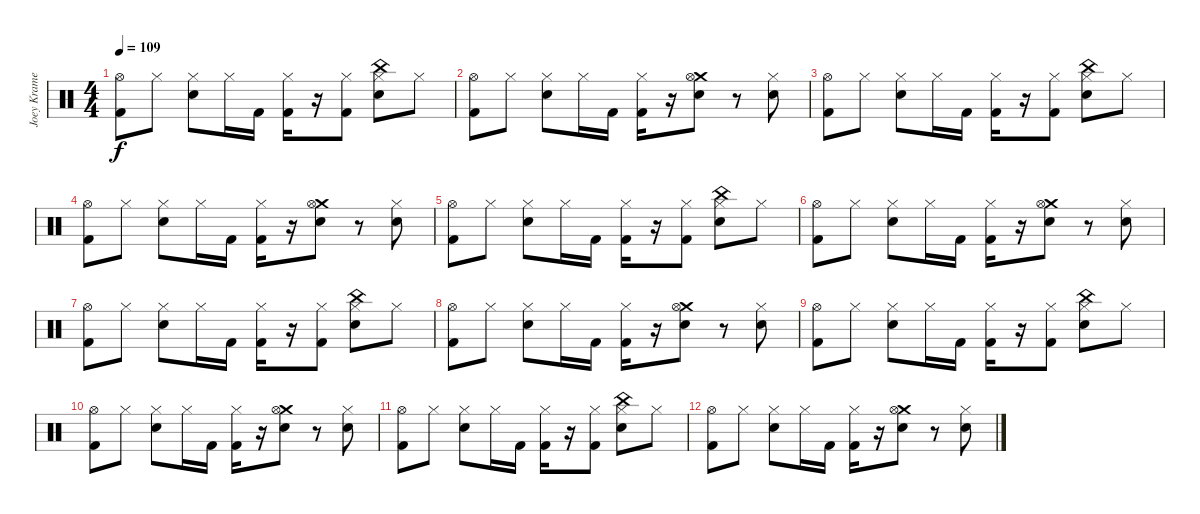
\track ("Joey Kramer" "Joey Krame") {instrument percussion}
\staff {score}
\articulation defaults
\ts (4 4)
\tempo 109
\clef neutral
\ks c
("Hi-Hat (open)" "Kick (hit) 2").8{dy f} "Hi-Hat (closed)".8 ("Hi-Hat (closed)" "Snare (hit) 2").8 "Hi-Hat (closed)".16 "Kick (hit) 2".16 ("Hi-Hat (closed)" "Kick (hit) 2").16 r.16 ("Hi-Hat (closed)" "Kick (hit) 2").8 ("China (hit)" "Hi-Hat (closed)" "Snare (hit) 2").8 "Hi-Hat (closed)".8 |
("Hi-Hat (open)" "Kick (hit) 2").8 "Hi-Hat (closed)".8 ("Hi-Hat (closed)" "Snare (hit) 2").8 "Hi-Hat (closed)".16 "Kick (hit) 2".16 ("Hi-Hat (closed)" "Kick (hit) 2").16 r.16 ("Crash medium (hit)" "Hi-Hat (open)" "Snare (hit) 2").8 r.8 ("Snare (hit) 2" "Hi-Hat (closed)").8 |
("Hi-Hat (open)" "Kick (hit) 2").8 "Hi-Hat (closed)".8 ("Hi-Hat (closed)" "Snare (hit) 2").8 "Hi-Hat (closed)".16 "Kick (hit) 2".16 ("Hi-Hat (closed)" "Kick (hit) 2").16 r.16 ("Hi-Hat (closed)" "Kick (hit) 2").8 ("China (hit)" "Hi-Hat (closed)" "Snare (hit) 2").8 "Hi-Hat (closed)".8 |
("Hi-Hat (open)" "Kick (hit) 2").8 "Hi-Hat (closed)".8 ("Hi-Hat (closed)" "Snare (hit) 2").8 "Hi-Hat (closed)".16 "Kick (hit) 2".16 ("Hi-Hat (closed)" "Kick (hit) 2").16 r.16 ("Crash medium (hit)" "Hi-Hat (open)" "Snare (hit) 2").8 r.8 ("Snare (hit) 2" "Hi-Hat (closed)").8 |
("Hi-Hat (open)" "Kick (hit) 2").8 "Hi-Hat (closed)".8 ("Hi-Hat (closed)" "Snare (hit) 2").8 "Hi-Hat (closed)".16 "Kick (hit) 2".16 ("Hi-Hat (closed)" "Kick (hit) 2").16 r.16 ("Hi-Hat (closed)" "Kick (hit) 2").8 ("China (hit)" "Hi-Hat (closed)" "Snare (hit) 2").8 "Hi-Hat (closed)".8 |
("Hi-Hat (open)" "Kick (hit) 2").8 "Hi-Hat (closed)".8 ("Hi-Hat (closed)" "Snare (hit) 2").8 "Hi-Hat (closed)".16 "Kick (hit) 2".16 ("Hi-Hat (closed)" "Kick (hit) 2").16 r.16 ("Crash medium (hit)" "Hi-Hat (open)" "Snare (hit) 2").8 r.8 ("Snare (hit) 2" "Hi-Hat (closed)").8 |
("Hi-Hat (open)" "Kick (hit) 2").8 "Hi-Hat (closed)".8 ("Hi-Hat (closed)" "Snare (hit) 2").8 "Hi-Hat (closed)".16 "Kick (hit) 2".16 ("Hi-Hat (closed)" "Kick (hit) 2").16 r.16 ("Hi-Hat (closed)" "Kick (hit) 2").8 ("China (hit)" "Hi-Hat (closed)" "Snare (hit) 2").8 "Hi-Hat (closed)".8 |
("Hi-Hat (open)" "Kick (hit) 2").8 "Hi-Hat (closed)".8 ("Hi-Hat (closed)" "Snare (hit) 2").8 "Hi-Hat (closed)".16 "Kick (hit) 2".16 ("Hi-Hat (closed)" "Kick (hit) 2").16 r.16 ("Crash medium (hit)" "Hi-Hat (open)" "Snare (hit) 2").8 r.8 ("Snare (hit) 2" "Hi-Hat (closed)").8 |
("Hi-Hat (open)" "Kick (hit) 2").8 "Hi-Hat (closed)".8 ("Hi-Hat (closed)" "Snare (hit) 2").8 "Hi-Hat (closed)".16 "Kick (hit) 2".16 ("Hi-Hat (closed)" "Kick (hit) 2").16 r.16 ("Hi-Hat (closed)" "Kick (hit) 2").8 ("China (hit)" "Hi-Hat (closed)" "Snare (hit) 2").8 "Hi-Hat (closed)".8 |
("Hi-Hat (open)" "Kick (hit) 2").8 "Hi-Hat (closed)".8 ("Hi-Hat (closed)" "Snare (hit) 2").8 "Hi-Hat (closed)".16 "Kick (hit) 2".16 ("Hi-Hat (closed)" "Kick (hit) 2").16 r.16 ("Crash medium (hit)" "Hi-Hat (open)" "Snare (hit) 2").8 r.8 ("Snare (hit) 2" "Hi-Hat (closed)").8 |
("Hi-Hat (open)" "Kick (hit) 2").8 "Hi-Hat (closed)".8 ("Hi-Hat (closed)" "Snare (hit) 2").8 "Hi-Hat (closed)".16 "Kick (hit) 2".16 ("Hi-Hat (closed)" "Kick (hit) 2").16 r.16 ("Hi-Hat (closed)" "Kick (hit) 2").8 ("China (hit)" "Hi-Hat (closed)" "Snare (hit) 2").8 "Hi-Hat (closed)".8 |
("Hi-Hat (open)" "Kick (hit) 2").8 "Hi-Hat (closed)".8 ("Hi-Hat (closed)" "Snare (hit) 2").8 "Hi-Hat (closed)".16 "Kick (hit) 2".16 ("Hi-Hat (closed)" "Kick (hit) 2").16 r.16 ("Crash medium (hit)" "Hi-Hat (open)" "Snare (hit) 2").8 r.8 ("Snare (hit) 2" "Hi-Hat (closed)").8
